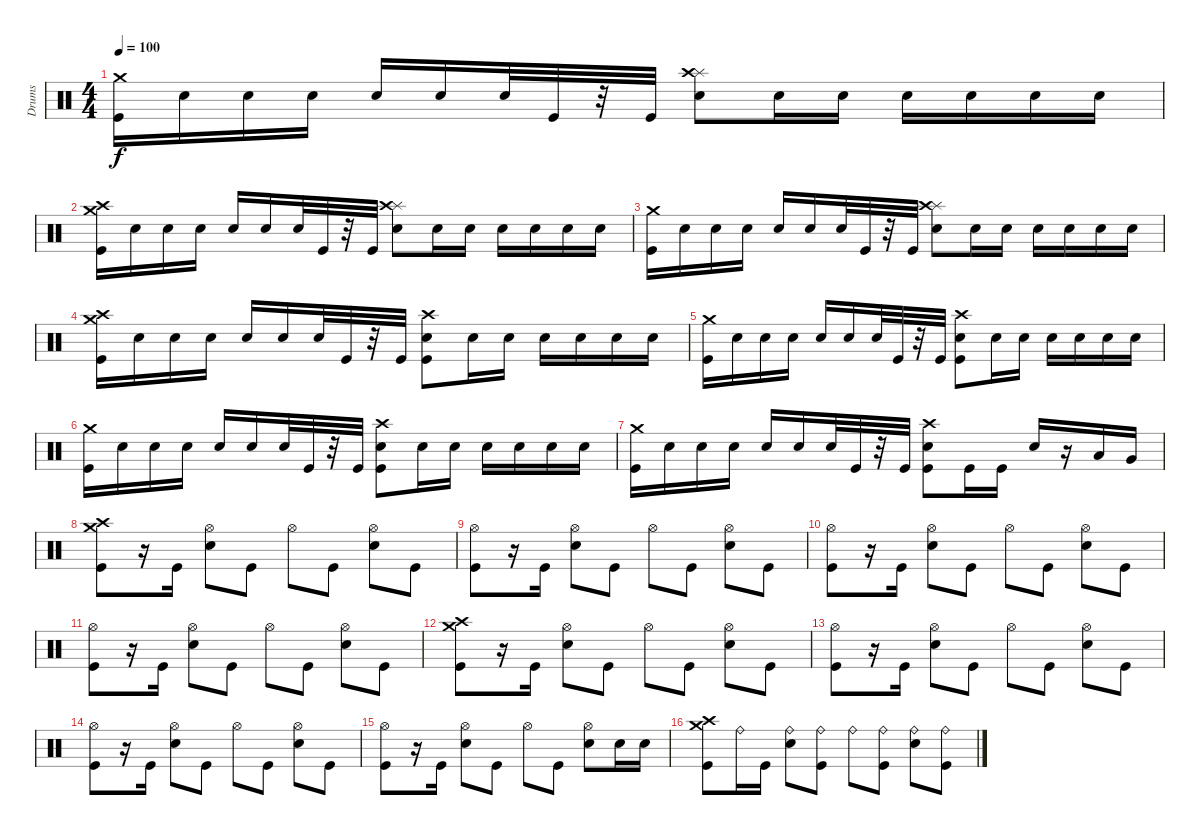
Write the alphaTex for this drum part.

\track ("Drums" "Drums") {instrument percussion}
\staff {score}
\articulation defaults
\ts (4 4)
\tempo 100
\clef neutral
\ks c
("Kick (hit)" "Crash medium (hit)").16{dy f} "Electric Snare (hit)".16 "Electric Snare (hit)".16 "Electric Snare (hit)".16 "Electric Snare (hit)".16 "Electric Snare (hit)".16 "Electric Snare (hit)".32 "Kick (hit)".32 r.32 "Kick (hit)".32 ("Electric Snare (hit)" "Splash (hit)" "Crash high (hit)").8 "Electric Snare (hit)".16 "Electric Snare (hit)".16 "Electric Snare (hit)".16 "Electric Snare (hit)".16 "Electric Snare (hit)".16 "Electric Snare (hit)".16 |
("Kick (hit)" "Crash medium (hit)" "Crash high (hit)").16 "Electric Snare (hit)".16 "Electric Snare (hit)".16 "Electric Snare (hit)".16 "Electric Snare (hit)".16 "Electric Snare (hit)".16 "Electric Snare (hit)".32 "Kick (hit)".32 r.32 "Kick (hit)".32 ("Electric Snare (hit)" "Splash (hit)" "Crash high (hit)").8 "Electric Snare (hit)".16 "Electric Snare (hit)".16 "Electric Snare (hit)".16 "Electric Snare (hit)".16 "Electric Snare (hit)".16 "Electric Snare (hit)".16 |
("Kick (hit)" "Crash medium (hit)").16 "Electric Snare (hit)".16 "Electric Snare (hit)".16 "Electric Snare (hit)".16 "Electric Snare (hit)".16 "Electric Snare (hit)".16 "Electric Snare (hit)".32 "Kick (hit)".32 r.32 "Kick (hit)".32 ("Electric Snare (hit)" "Splash (hit)" "Crash high (hit)").8 "Electric Snare (hit)".16 "Electric Snare (hit)".16 "Electric Snare (hit)".16 "Electric Snare (hit)".16 "Electric Snare (hit)".16 "Electric Snare (hit)".16 |
("Kick (hit)" "Crash medium (hit)" "Crash high (hit)").16 "Electric Snare (hit)".16 "Electric Snare (hit)".16 "Electric Snare (hit)".16 "Electric Snare (hit)".16 "Electric Snare (hit)".16 "Electric Snare (hit)".32 "Kick (hit)".32 r.32 "Kick (hit)".32 ("Electric Snare (hit)" "Kick (hit)" "Crash high (hit)").8 "Electric Snare (hit)".16 "Electric Snare (hit)".16 "Electric Snare (hit)".16 "Electric Snare (hit)".16 "Electric Snare (hit)".16 "Electric Snare (hit)".16 |
("Kick (hit)" "Crash medium (hit)").16 "Electric Snare (hit)".16 "Electric Snare (hit)".16 "Electric Snare (hit)".16 "Electric Snare (hit)".16 "Electric Snare (hit)".16 "Electric Snare (hit)".32 "Kick (hit)".32 r.32 "Kick (hit)".32 ("Electric Snare (hit)" "Kick (hit)" "Crash high (hit)").8 "Electric Snare (hit)".16 "Electric Snare (hit)".16 "Electric Snare (hit)".16 "Electric Snare (hit)".16 "Electric Snare (hit)".16 "Electric Snare (hit)".16 |
("Kick (hit)" "Crash medium (hit)").16 "Electric Snare (hit)".16 "Electric Snare (hit)".16 "Electric Snare (hit)".16 "Electric Snare (hit)".16 "Electric Snare (hit)".16 "Electric Snare (hit)".32 "Kick (hit)".32 r.32 "Kick (hit)".32 ("Electric Snare (hit)" "Kick (hit)" "Crash high (hit)").8 "Electric Snare (hit)".16 "Electric Snare (hit)".16 "Electric Snare (hit)".16 "Electric Snare (hit)".16 "Electric Snare (hit)".16 "Electric Snare (hit)".16 |
("Kick (hit)" "Crash medium (hit)").16 "Electric Snare (hit)".16 "Electric Snare (hit)".16 "Electric Snare (hit)".16 "Electric Snare (hit)".16 "Electric Snare (hit)".16 "Electric Snare (hit)".32 "Kick (hit)".32 r.32 "Kick (hit)".32 ("Electric Snare (hit)" "Kick (hit)" "Crash high (hit)").8 "Kick (hit)".16 "Kick (hit)".16 "Electric Snare (hit)".16 r.16 "Low Tom (hit)".16 "Very Low Tom (hit)".16 |
("Kick (hit)" "Crash medium (hit)" "Crash high (hit)").8 r.16 "Kick (hit)".16 ("Electric Snare (hit)" "Hi-Hat (open)").8 "Kick (hit)".8 "Hi-Hat (open)".8 "Kick (hit)".8 ("Electric Snare (hit)" "Hi-Hat (open)").8 "Kick (hit)".8 |
("Kick (hit)" "Hi-Hat (open)").8 r.16 "Kick (hit)".16 ("Electric Snare (hit)" "Hi-Hat (open)").8 "Kick (hit)".8 "Hi-Hat (open)".8 "Kick (hit)".8 ("Electric Snare (hit)" "Hi-Hat (open)").8 "Kick (hit)".8 |
("Kick (hit)" "Hi-Hat (open)").8 r.16 "Kick (hit)".16 ("Electric Snare (hit)" "Hi-Hat (open)").8 "Kick (hit)".8 "Hi-Hat (open)".8 "Kick (hit)".8 ("Electric Snare (hit)" "Hi-Hat (open)").8 "Kick (hit)".8 |
("Kick (hit)" "Hi-Hat (open)").8 r.16 "Kick (hit)".16 ("Electric Snare (hit)" "Hi-Hat (open)").8 "Kick (hit)".8 "Hi-Hat (open)".8 "Kick (hit)".8 ("Electric Snare (hit)" "Hi-Hat (open)").8 "Kick (hit)".8 |
("Kick (hit)" "Crash medium (hit)" "Crash high (hit)").8 r.16 "Kick (hit)".16 ("Electric Snare (hit)" "Hi-Hat (open)").8 "Kick (hit)".8 "Hi-Hat (open)".8 "Kick (hit)".8 ("Electric Snare (hit)" "Hi-Hat (open)").8 "Kick (hit)".8 |
("Kick (hit)" "Hi-Hat (open)").8 r.16 "Kick (hit)".16 ("Electric Snare (hit)" "Hi-Hat (open)").8 "Kick (hit)".8 "Hi-Hat (open)".8 "Kick (hit)".8 ("Electric Snare (hit)" "Hi-Hat (open)").8 "Kick (hit)".8 |
("Kick (hit)" "Hi-Hat (open)").8 r.16 "Kick (hit)".16 ("Electric Snare (hit)" "Hi-Hat (open)").8 "Kick (hit)".8 "Hi-Hat (open)".8 "Kick (hit)".8 ("Electric Snare (hit)" "Hi-Hat (open)").8 "Kick (hit)".8 |
("Kick (hit)" "Hi-Hat (open)").8 r.16 "Kick (hit)".16 ("Electric Snare (hit)" "Hi-Hat (open)").8 "Kick (hit)".8 "Hi-Hat (open)".8 "Kick (hit)".8 ("Electric Snare (hit)" "Hi-Hat (open)").8 "Electric Snare (hit)".16 "Electric Snare (hit)".16 |
("Kick (hit)" "Crash medium (hit)" "Crash high (hit)").8 "Ride (bell)".16 "Kick (hit)".16 ("Electric Snare (hit)" "Ride (bell)").8 ("Kick (hit)" "Ride (bell)").8 "Ride (bell)".8 ("Kick (hit)" "Ride (bell)").8 ("Electric Snare (hit)" "Ride (bell)").8 ("Kick (hit)" "Ride (bell)").8
